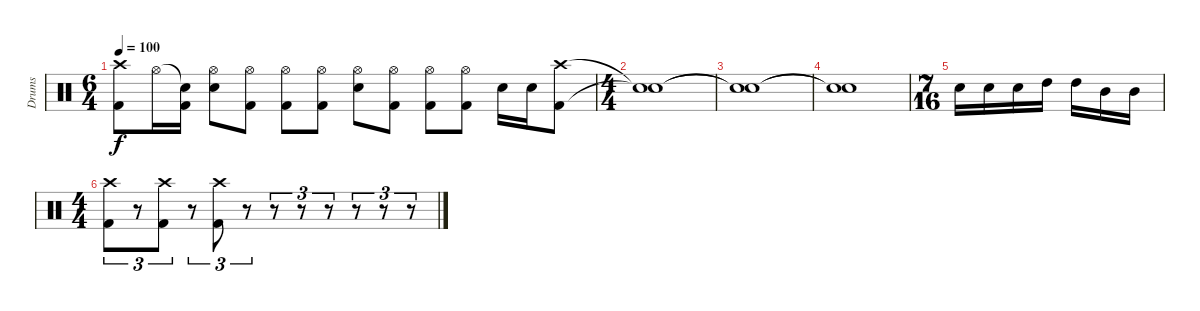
\track ("Drums" "Drums") {instrument percussion}
\staff {score}
\articulation defaults
\ts (6 4)
\tempo 100
\clef neutral
\ks c
("Crash high (hit)" "Kick (hit) 2").8{dy f} "Hi-Hat (open)".16 ("Snare (hit)"{t} "Kick (hit) 2").16 ("Hi-Hat (open)" "Snare (hit) 2").8 ("Hi-Hat (open)" "Kick (hit) 2").8 ("Hi-Hat (open)" "Kick (hit) 2").8 ("Hi-Hat (open)" "Kick (hit) 2").8 ("Hi-Hat (open)" "Snare (hit) 2").8 ("Hi-Hat (open)" "Kick (hit) 2").8 ("Hi-Hat (open)" "Kick (hit) 2").8 ("Hi-Hat (open)" "Kick (hit) 2").8 "Snare (hit) 2".16 "Snare (hit) 2".16 ("Crash high (hit)" "Kick (hit) 2").8 |
\ts (4 4)
("Snare (hit)"{t} "Snare (hit)"{t}).1 |
("Snare (hit)"{t} "Snare (hit)"{t}).1 |
("Snare (hit)"{t} "Snare (hit)"{t}).1 |
\ts (7 16)
"Snare (hit) 2".16{volume 16} "Snare (hit) 2".16 "Snare (hit) 2".16 "High Tom (hit)".16 "High Tom (hit)".16 "Mid Tom (hit)".16 "Mid Tom (hit)".16 |
\ts (4 4)
("Crash high (hit)" "Kick (hit) 2").8{tu (3 2)} r.8{tu (3 2)} ("Crash high (hit)" "Kick (hit) 2").8{tu (3 2)} r.8{tu (3 2)} ("Crash high (hit)" "Kick (hit) 2").8{tu (3 2)} r.8{tu (3 2)} r.8{tu (3 2)} r.8{tu (3 2)} r.8{tu (3 2)} r.8{tu (3 2)} r.8{tu (3 2)} r.8{tu (3 2)}
